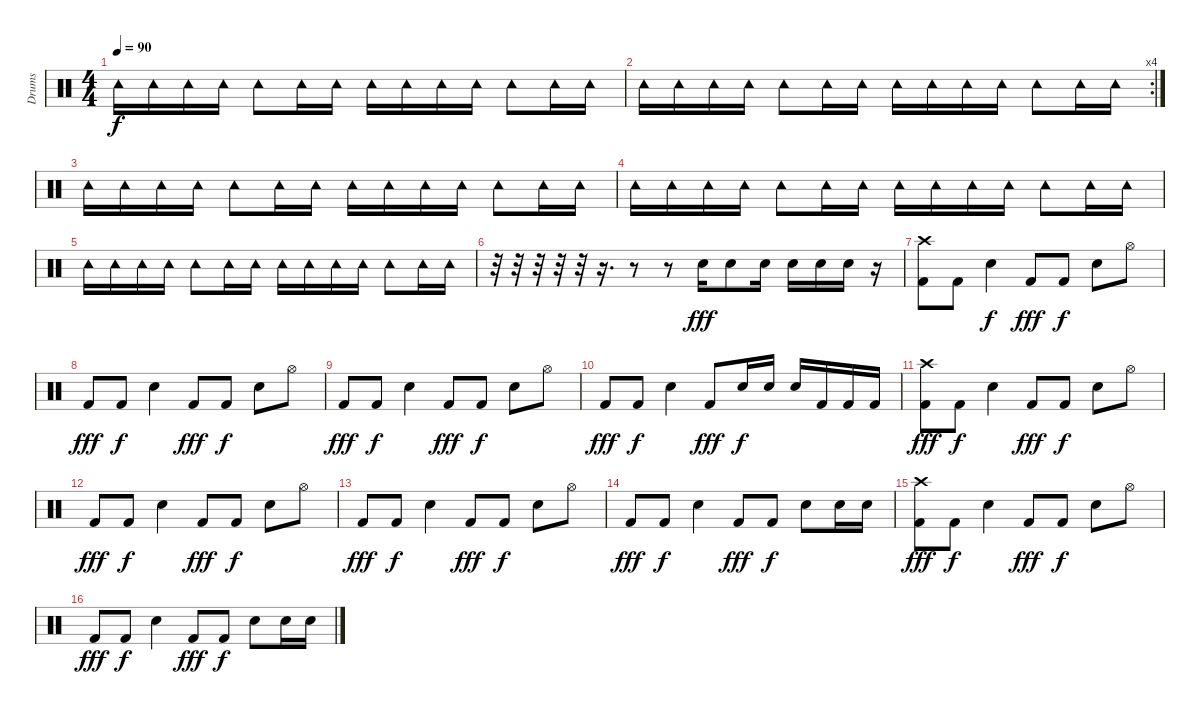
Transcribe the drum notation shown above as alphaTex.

\track ("Drums" "Drums") {instrument percussion}
\staff {score}
\articulation defaults
\ts (4 4)
\tempo 90
\clef neutral
\ks c "Tambourine (hit)".16{dy f} "Tambourine (hit)".16 "Tambourine (hit)".16 "Tambourine (hit)".16 "Tambourine (hit)".8 "Tambourine (hit)".16 "Tambourine (hit)".16 "Tambourine (hit)".16 "Tambourine (hit)".16 "Tambourine (hit)".16 "Tambourine (hit)".16 "Tambourine (hit)".8 "Tambourine (hit)".16 "Tambourine (hit)".16
|
\rc 4 "Tambourine (hit)".16 "Tambourine (hit)".16 "Tambourine (hit)".16 "Tambourine (hit)".16 "Tambourine (hit)".8 "Tambourine (hit)".16 "Tambourine (hit)".16 "Tambourine (hit)".16 "Tambourine (hit)".16 "Tambourine (hit)".16 "Tambourine (hit)".16 "Tambourine (hit)".8 "Tambourine (hit)".16 "Tambourine (hit)".16
|
"Tambourine (hit)".16 "Tambourine (hit)".16 "Tambourine (hit)".16 "Tambourine (hit)".16 "Tambourine (hit)".8 "Tambourine (hit)".16 "Tambourine (hit)".16 "Tambourine (hit)".16 "Tambourine (hit)".16 "Tambourine (hit)".16 "Tambourine (hit)".16 "Tambourine (hit)".8 "Tambourine (hit)".16 "Tambourine (hit)".16 |
"Tambourine (hit)".16 "Tambourine (hit)".16 "Tambourine (hit)".16 "Tambourine (hit)".16 "Tambourine (hit)".8 "Tambourine (hit)".16 "Tambourine (hit)".16 "Tambourine (hit)".16 "Tambourine (hit)".16 "Tambourine (hit)".16 "Tambourine (hit)".16 "Tambourine (hit)".8 "Tambourine (hit)".16 "Tambourine (hit)".16 |
"Tambourine (hit)".16 "Tambourine (hit)".16 "Tambourine (hit)".16 "Tambourine (hit)".16 "Tambourine (hit)".8 "Tambourine (hit)".16 "Tambourine (hit)".16 "Tambourine (hit)".16 "Tambourine (hit)".16 "Tambourine (hit)".16 "Tambourine (hit)".16 "Tambourine (hit)".8 "Tambourine (hit)".16 "Tambourine (hit)".16 |
r.32 r.32 r.32 r.32 r.32 r.16{d} r.8 r.8 "Snare (hit) 2".16{dy fff} "Snare (hit) 2".8 "Snare (hit) 2".16 "Snare (hit) 2".16 "Snare (hit) 2".16 "Snare (hit) 2".16 r.16 |
("Crash high (hit)" "Kick (hit) 2").8 "Kick (hit) 2".8 "Snare (hit) 2".4{dy f} "Kick (hit) 2".8{dy fff} "Kick (hit) 2".8{dy f} "Snare (hit) 2".8 "Hi-Hat (open)".8 |
"Kick (hit) 2".8{dy fff} "Kick (hit) 2".8{dy f} "Snare (hit) 2".4 "Kick (hit) 2".8{dy fff} "Kick (hit) 2".8{dy f} "Snare (hit) 2".8 "Hi-Hat (open)".8 |
"Kick (hit) 2".8{dy fff} "Kick (hit) 2".8{dy f} "Snare (hit) 2".4 "Kick (hit) 2".8{dy fff} "Kick (hit) 2".8{dy f} "Snare (hit) 2".8 "Hi-Hat (open)".8 |
"Kick (hit) 2".8{dy fff} "Kick (hit) 2".8{dy f} "Snare (hit) 2".4 "Kick (hit) 2".8{dy fff} "Snare (hit) 2".16{dy f} "Snare (hit) 2".16 "Snare (hit) 2".16 "Kick (hit) 2".16 "Kick (hit) 2".16 "Kick (hit) 2".16 |
("Crash high (hit)" "Kick (hit) 2").8{dy fff} "Kick (hit) 2".8{dy f} "Snare (hit) 2".4 "Kick (hit) 2".8{dy fff} "Kick (hit) 2".8{dy f} "Snare (hit) 2".8 "Hi-Hat (open)".8 |
"Kick (hit) 2".8{dy fff} "Kick (hit) 2".8{dy f} "Snare (hit) 2".4 "Kick (hit) 2".8{dy fff} "Kick (hit) 2".8{dy f} "Snare (hit) 2".8 "Hi-Hat (open)".8 |
"Kick (hit) 2".8{dy fff} "Kick (hit) 2".8{dy f} "Snare (hit) 2".4 "Kick (hit) 2".8{dy fff} "Kick (hit) 2".8{dy f} "Snare (hit) 2".8 "Hi-Hat (open)".8 |
"Kick (hit) 2".8{dy fff} "Kick (hit) 2".8{dy f} "Snare (hit) 2".4 "Kick (hit) 2".8{dy fff} "Kick (hit) 2".8{dy f} "Snare (hit) 2".8 "Snare (hit) 2".16 "Snare (hit) 2".16 |
("Crash high (hit)" "Kick (hit) 2").8{dy fff} "Kick (hit) 2".8{dy f} "Snare (hit) 2".4 "Kick (hit) 2".8{dy fff} "Kick (hit) 2".8{dy f} "Snare (hit) 2".8 "Hi-Hat (open)".8 |
"Kick (hit) 2".8{dy fff} "Kick (hit) 2".8{dy f} "Snare (hit) 2".4 "Kick (hit) 2".8{dy fff} "Kick (hit) 2".8{dy f} "Snare (hit) 2".8 "Snare (hit) 2".16 "Snare (hit) 2".16
